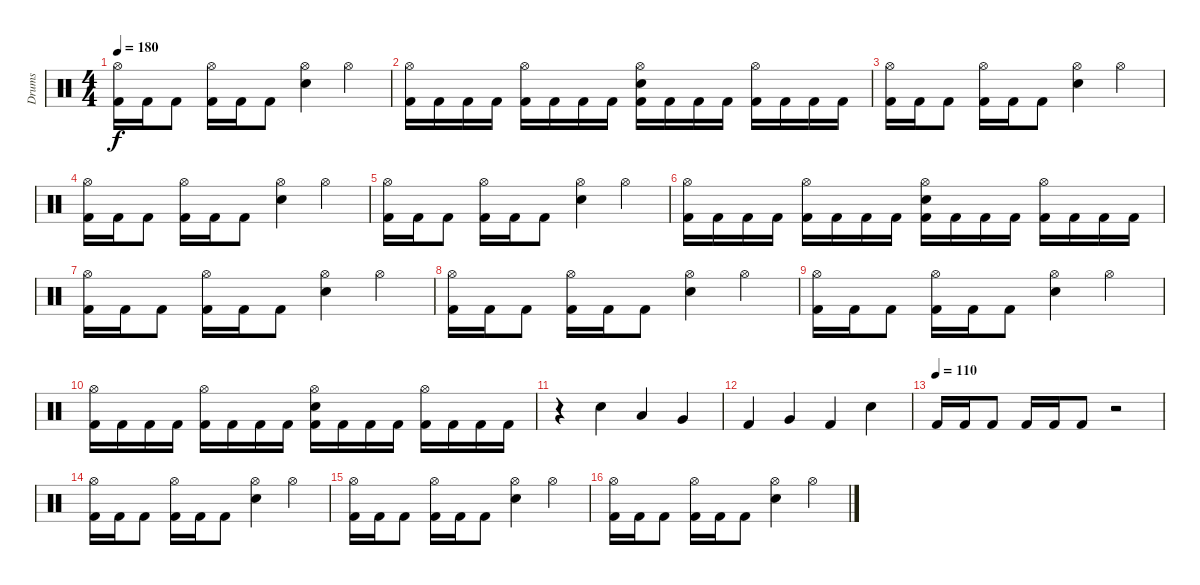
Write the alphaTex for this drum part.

\track ("Drums" "Drums") {instrument percussion}
\staff {score}
\articulation defaults
\ts (4 4)
\tempo 180
\clef neutral
\ks c
("Hi-Hat (open)" "Kick (hit) 2").16{dy f} "Kick (hit) 2".16 "Kick (hit) 2".8 ("Hi-Hat (open)" "Kick (hit) 2").16 "Kick (hit) 2".16 "Kick (hit) 2".8 ("Hi-Hat (open)" "Snare (hit) 2").4 "Hi-Hat (open)".4 |
("Hi-Hat (open)" "Kick (hit) 2").16 "Kick (hit) 2".16 "Kick (hit) 2".16 "Kick (hit) 2".16 ("Hi-Hat (open)" "Kick (hit) 2").16 "Kick (hit) 2".16 "Kick (hit) 2".16 "Kick (hit) 2".16 ("Hi-Hat (open)" "Snare (hit) 2" "Kick (hit) 2").16 "Kick (hit) 2".16 "Kick (hit) 2".16 "Kick (hit) 2".16 ("Hi-Hat (open)" "Kick (hit) 2").16 "Kick (hit) 2".16 "Kick (hit) 2".16 "Kick (hit) 2".16 |
("Hi-Hat (open)" "Kick (hit) 2").16 "Kick (hit) 2".16 "Kick (hit) 2".8 ("Hi-Hat (open)" "Kick (hit) 2").16 "Kick (hit) 2".16 "Kick (hit) 2".8 ("Hi-Hat (open)" "Snare (hit) 2").4 "Hi-Hat (open)".4 |
("Hi-Hat (open)" "Kick (hit) 2").16 "Kick (hit) 2".16 "Kick (hit) 2".8 ("Hi-Hat (open)" "Kick (hit) 2").16 "Kick (hit) 2".16 "Kick (hit) 2".8 ("Hi-Hat (open)" "Snare (hit) 2").4 "Hi-Hat (open)".4 |
("Hi-Hat (open)" "Kick (hit) 2").16 "Kick (hit) 2".16 "Kick (hit) 2".8 ("Hi-Hat (open)" "Kick (hit) 2").16 "Kick (hit) 2".16 "Kick (hit) 2".8 ("Hi-Hat (open)" "Snare (hit) 2").4 "Hi-Hat (open)".4 |
("Hi-Hat (open)" "Kick (hit) 2").16 "Kick (hit) 2".16 "Kick (hit) 2".16 "Kick (hit) 2".16 ("Hi-Hat (open)" "Kick (hit) 2").16 "Kick (hit) 2".16 "Kick (hit) 2".16 "Kick (hit) 2".16 ("Hi-Hat (open)" "Snare (hit) 2" "Kick (hit) 2").16 "Kick (hit) 2".16 "Kick (hit) 2".16 "Kick (hit) 2".16 ("Hi-Hat (open)" "Kick (hit) 2").16 "Kick (hit) 2".16 "Kick (hit) 2".16 "Kick (hit) 2".16 |
("Hi-Hat (open)" "Kick (hit) 2").16 "Kick (hit) 2".16 "Kick (hit) 2".8 ("Hi-Hat (open)" "Kick (hit) 2").16 "Kick (hit) 2".16 "Kick (hit) 2".8 ("Hi-Hat (open)" "Snare (hit) 2").4 "Hi-Hat (open)".4 |
("Hi-Hat (open)" "Kick (hit) 2").16 "Kick (hit) 2".16 "Kick (hit) 2".8 ("Hi-Hat (open)" "Kick (hit) 2").16 "Kick (hit) 2".16 "Kick (hit) 2".8 ("Hi-Hat (open)" "Snare (hit) 2").4 "Hi-Hat (open)".4 |
("Hi-Hat (open)" "Kick (hit) 2").16 "Kick (hit) 2".16 "Kick (hit) 2".8 ("Hi-Hat (open)" "Kick (hit) 2").16 "Kick (hit) 2".16 "Kick (hit) 2".8 ("Hi-Hat (open)" "Snare (hit) 2").4 "Hi-Hat (open)".4 |
("Hi-Hat (open)" "Kick (hit) 2").16 "Kick (hit) 2".16 "Kick (hit) 2".16 "Kick (hit) 2".16 ("Hi-Hat (open)" "Kick (hit) 2").16 "Kick (hit) 2".16 "Kick (hit) 2".16 "Kick (hit) 2".16 ("Hi-Hat (open)" "Snare (hit) 2" "Kick (hit) 2").16 "Kick (hit) 2".16 "Kick (hit) 2".16 "Kick (hit) 2".16 ("Hi-Hat (open)" "Kick (hit) 2").16 "Kick (hit) 2".16 "Kick (hit) 2".16 "Kick (hit) 2".16 |
r.4 "Snare (hit) 2".4 "Low Tom (hit)".4 "Very Low Tom (hit)".4 |
"Kick (hit) 2".4 "Very Low Tom (hit)".4 "Kick (hit) 2".4 "Snare (hit) 2".4 |
\tempo (110)
"Kick (hit) 2".16 "Kick (hit) 2".16 "Kick (hit) 2".8 "Kick (hit) 2".16 "Kick (hit) 2".16 "Kick (hit) 2".8 r.2 |
("Hi-Hat (open)" "Kick (hit) 2").16 "Kick (hit) 2".16 "Kick (hit) 2".8 ("Hi-Hat (open)" "Kick (hit) 2").16 "Kick (hit) 2".16 "Kick (hit) 2".8 ("Hi-Hat (open)" "Snare (hit) 2").4 "Hi-Hat (open)".4 |
("Hi-Hat (open)" "Kick (hit) 2").16 "Kick (hit) 2".16 "Kick (hit) 2".8 ("Hi-Hat (open)" "Kick (hit) 2").16 "Kick (hit) 2".16 "Kick (hit) 2".8 ("Hi-Hat (open)" "Snare (hit) 2").4 "Hi-Hat (open)".4 |
("Hi-Hat (open)" "Kick (hit) 2").16 "Kick (hit) 2".16 "Kick (hit) 2".8 ("Hi-Hat (open)" "Kick (hit) 2").16 "Kick (hit) 2".16 "Kick (hit) 2".8 ("Hi-Hat (open)" "Snare (hit) 2").4 "Hi-Hat (open)".4
